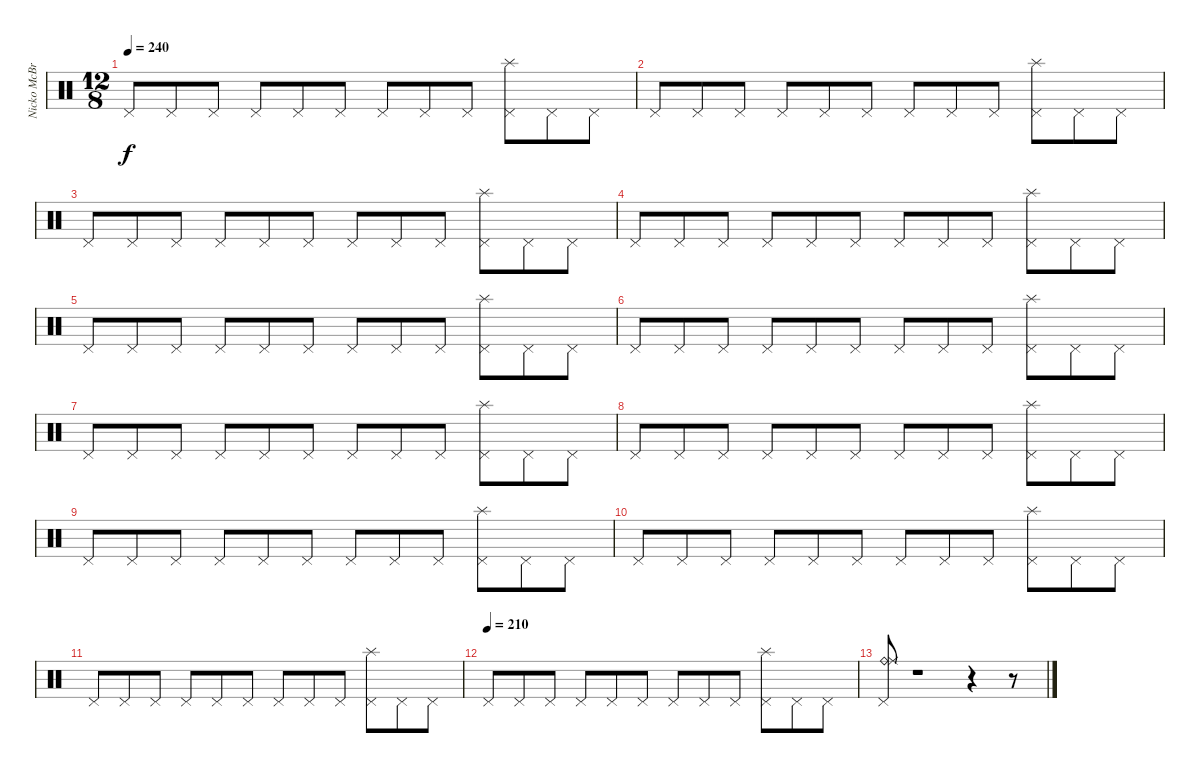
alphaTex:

\track ("Nicko McBrian (Drums)" "Nicko McBr") {instrument percussion}
\staff {score}
\articulation defaults
\ts (12 8)
\tempo 240
\clef neutral
\ks c "Pedal Hi-Hat (hit)".8{dy f} "Pedal Hi-Hat (hit)".8 "Pedal Hi-Hat (hit)".8 "Pedal Hi-Hat (hit)".8 "Pedal Hi-Hat (hit)".8 "Pedal Hi-Hat (hit)".8 "Pedal Hi-Hat (hit)".8 "Pedal Hi-Hat (hit)".8 "Pedal Hi-Hat (hit)".8
("Pedal Hi-Hat (hit)" "Splash (hit)").8 "Pedal Hi-Hat (hit)".8 "Pedal Hi-Hat (hit)".8 |
"Pedal Hi-Hat (hit)".8 "Pedal Hi-Hat (hit)".8 "Pedal Hi-Hat (hit)".8 "Pedal Hi-Hat (hit)".8 "Pedal Hi-Hat (hit)".8 "Pedal Hi-Hat (hit)".8 "Pedal Hi-Hat (hit)".8 "Pedal Hi-Hat (hit)".8 "Pedal Hi-Hat (hit)".8 ("Pedal Hi-Hat (hit)" "Splash (hit)").8 "Pedal Hi-Hat (hit)".8 "Pedal Hi-Hat (hit)".8 |
"Pedal Hi-Hat (hit)".8 "Pedal Hi-Hat (hit)".8 "Pedal Hi-Hat (hit)".8 "Pedal Hi-Hat (hit)".8 "Pedal Hi-Hat (hit)".8 "Pedal Hi-Hat (hit)".8 "Pedal Hi-Hat (hit)".8 "Pedal Hi-Hat (hit)".8 "Pedal Hi-Hat (hit)".8 ("Pedal Hi-Hat (hit)" "Splash (hit)").8 "Pedal Hi-Hat (hit)".8 "Pedal Hi-Hat (hit)".8 |
"Pedal Hi-Hat (hit)".8 "Pedal Hi-Hat (hit)".8 "Pedal Hi-Hat (hit)".8 "Pedal Hi-Hat (hit)".8 "Pedal Hi-Hat (hit)".8 "Pedal Hi-Hat (hit)".8 "Pedal Hi-Hat (hit)".8 "Pedal Hi-Hat (hit)".8 "Pedal Hi-Hat (hit)".8 ("Pedal Hi-Hat (hit)" "Splash (hit)").8 "Pedal Hi-Hat (hit)".8 "Pedal Hi-Hat (hit)".8 |
"Pedal Hi-Hat (hit)".8 "Pedal Hi-Hat (hit)".8 "Pedal Hi-Hat (hit)".8 "Pedal Hi-Hat (hit)".8 "Pedal Hi-Hat (hit)".8 "Pedal Hi-Hat (hit)".8 "Pedal Hi-Hat (hit)".8 "Pedal Hi-Hat (hit)".8 "Pedal Hi-Hat (hit)".8 ("Pedal Hi-Hat (hit)" "Splash (hit)").8 "Pedal Hi-Hat (hit)".8 "Pedal Hi-Hat (hit)".8 |
"Pedal Hi-Hat (hit)".8 "Pedal Hi-Hat (hit)".8 "Pedal Hi-Hat (hit)".8 "Pedal Hi-Hat (hit)".8 "Pedal Hi-Hat (hit)".8 "Pedal Hi-Hat (hit)".8 "Pedal Hi-Hat (hit)".8 "Pedal Hi-Hat (hit)".8 "Pedal Hi-Hat (hit)".8 ("Pedal Hi-Hat (hit)" "Splash (hit)").8 "Pedal Hi-Hat (hit)".8 "Pedal Hi-Hat (hit)".8 |
"Pedal Hi-Hat (hit)".8 "Pedal Hi-Hat (hit)".8 "Pedal Hi-Hat (hit)".8 "Pedal Hi-Hat (hit)".8 "Pedal Hi-Hat (hit)".8 "Pedal Hi-Hat (hit)".8 "Pedal Hi-Hat (hit)".8 "Pedal Hi-Hat (hit)".8 "Pedal Hi-Hat (hit)".8 ("Pedal Hi-Hat (hit)" "Splash (hit)").8 "Pedal Hi-Hat (hit)".8 "Pedal Hi-Hat (hit)".8 |
"Pedal Hi-Hat (hit)".8 "Pedal Hi-Hat (hit)".8 "Pedal Hi-Hat (hit)".8 "Pedal Hi-Hat (hit)".8 "Pedal Hi-Hat (hit)".8 "Pedal Hi-Hat (hit)".8 "Pedal Hi-Hat (hit)".8 "Pedal Hi-Hat (hit)".8 "Pedal Hi-Hat (hit)".8 ("Pedal Hi-Hat (hit)" "Splash (hit)").8 "Pedal Hi-Hat (hit)".8 "Pedal Hi-Hat (hit)".8 |
"Pedal Hi-Hat (hit)".8 "Pedal Hi-Hat (hit)".8 "Pedal Hi-Hat (hit)".8 "Pedal Hi-Hat (hit)".8 "Pedal Hi-Hat (hit)".8 "Pedal Hi-Hat (hit)".8 "Pedal Hi-Hat (hit)".8 "Pedal Hi-Hat (hit)".8 "Pedal Hi-Hat (hit)".8 ("Pedal Hi-Hat (hit)" "Splash (hit)").8 "Pedal Hi-Hat (hit)".8 "Pedal Hi-Hat (hit)".8 |
"Pedal Hi-Hat (hit)".8 "Pedal Hi-Hat (hit)".8 "Pedal Hi-Hat (hit)".8 "Pedal Hi-Hat (hit)".8 "Pedal Hi-Hat (hit)".8 "Pedal Hi-Hat (hit)".8 "Pedal Hi-Hat (hit)".8 "Pedal Hi-Hat (hit)".8 "Pedal Hi-Hat (hit)".8 ("Pedal Hi-Hat (hit)" "Splash (hit)").8 "Pedal Hi-Hat (hit)".8 "Pedal Hi-Hat (hit)".8 |
"Pedal Hi-Hat (hit)".8 "Pedal Hi-Hat (hit)".8 "Pedal Hi-Hat (hit)".8 "Pedal Hi-Hat (hit)".8 "Pedal Hi-Hat (hit)".8 "Pedal Hi-Hat (hit)".8 "Pedal Hi-Hat (hit)".8 "Pedal Hi-Hat (hit)".8 "Pedal Hi-Hat (hit)".8 ("Pedal Hi-Hat (hit)" "Splash (hit)").8 "Pedal Hi-Hat (hit)".8 "Pedal Hi-Hat (hit)".8 |
\tempo (210)
"Pedal Hi-Hat (hit)".8 "Pedal Hi-Hat (hit)".8 "Pedal Hi-Hat (hit)".8 "Pedal Hi-Hat (hit)".8 "Pedal Hi-Hat (hit)".8 "Pedal Hi-Hat (hit)".8 "Pedal Hi-Hat (hit)".8 "Pedal Hi-Hat (hit)".8 "Pedal Hi-Hat (hit)".8 ("Pedal Hi-Hat (hit)" "Splash (hit)").8 "Pedal Hi-Hat (hit)".8 "Pedal Hi-Hat (hit)".8 |
("Pedal Hi-Hat (hit)" "Ride (bell)" "Ride (middle)").8 r.1 r.4 r.8
